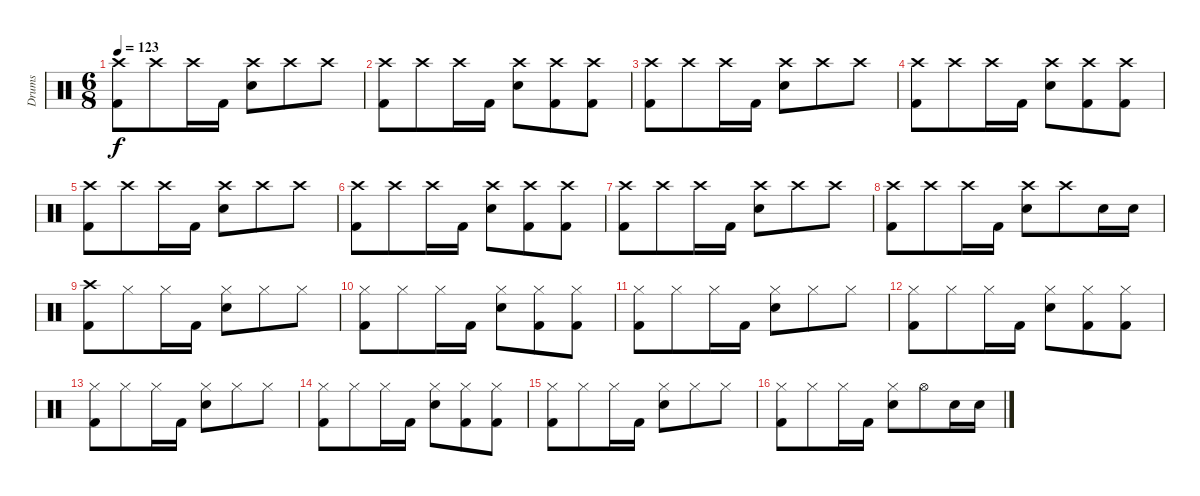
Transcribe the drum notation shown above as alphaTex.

\track ("Drums" "Drums") {instrument percussion}
\staff {score}
\articulation defaults
\ts (6 8)
\tempo 123
\clef neutral
\ks c
("Crash high (hit)" "Kick (hit) 2").8{dy f} "Crash high (hit)".8 "Crash high (hit)".16 "Kick (hit) 2".16 ("Crash high (hit)" "Electric Snare (hit)").8 "Crash high (hit)".8 "Crash high (hit)".8 |
("Crash high (hit)" "Kick (hit) 2").8 "Crash high (hit)".8 "Crash high (hit)".16 "Kick (hit) 2".16 ("Crash high (hit)" "Electric Snare (hit)").8 ("Crash high (hit)" "Kick (hit) 2").8 ("Crash high (hit)" "Kick (hit) 2").8 |
("Crash high (hit)" "Kick (hit) 2").8 "Crash high (hit)".8 "Crash high (hit)".16 "Kick (hit) 2".16 ("Crash high (hit)" "Electric Snare (hit)").8 "Crash high (hit)".8 "Crash high (hit)".8 |
("Crash high (hit)" "Kick (hit) 2").8 "Crash high (hit)".8 "Crash high (hit)".16 "Kick (hit) 2".16 ("Crash high (hit)" "Electric Snare (hit)").8 ("Crash high (hit)" "Kick (hit) 2").8 ("Crash high (hit)" "Kick (hit) 2").8 |
("Crash high (hit)" "Kick (hit) 2").8 "Crash high (hit)".8 "Crash high (hit)".16 "Kick (hit) 2".16 ("Crash high (hit)" "Electric Snare (hit)").8 "Crash high (hit)".8 "Crash high (hit)".8 |
("Crash high (hit)" "Kick (hit) 2").8 "Crash high (hit)".8 "Crash high (hit)".16 "Kick (hit) 2".16 ("Crash high (hit)" "Electric Snare (hit)").8 ("Crash high (hit)" "Kick (hit) 2").8 ("Crash high (hit)" "Kick (hit) 2").8 |
("Crash high (hit)" "Kick (hit) 2").8 "Crash high (hit)".8 "Crash high (hit)".16 "Kick (hit) 2".16 ("Crash high (hit)" "Electric Snare (hit)").8 "Crash high (hit)".8 "Crash high (hit)".8 |
("Crash high (hit)" "Kick (hit) 2").8 "Crash high (hit)".8 "Crash high (hit)".16 "Kick (hit) 2".16 ("Crash high (hit)" "Electric Snare (hit)").8 "Crash high (hit)".8 "Electric Snare (hit)".16 "Electric Snare (hit)".16 |
("Crash high (hit)" "Kick (hit) 2").8 "Hi-Hat (closed)".8 "Hi-Hat (closed)".16 "Kick (hit) 2".16 ("Hi-Hat (closed)" "Electric Snare (hit)").8 "Hi-Hat (closed)".8 "Hi-Hat (closed)".8 |
("Hi-Hat (closed)" "Kick (hit) 2").8 "Hi-Hat (closed)".8 "Hi-Hat (closed)".16 "Kick (hit) 2".16 ("Hi-Hat (closed)" "Electric Snare (hit)").8 ("Hi-Hat (closed)" "Kick (hit) 2").8 ("Hi-Hat (closed)" "Kick (hit) 2").8 |
("Hi-Hat (closed)" "Kick (hit) 2").8 "Hi-Hat (closed)".8 "Hi-Hat (closed)".16 "Kick (hit) 2".16 ("Hi-Hat (closed)" "Electric Snare (hit)").8 "Hi-Hat (closed)".8 "Hi-Hat (closed)".8 |
("Hi-Hat (closed)" "Kick (hit) 2").8 "Hi-Hat (closed)".8 "Hi-Hat (closed)".16 "Kick (hit) 2".16 ("Hi-Hat (closed)" "Electric Snare (hit)").8 ("Hi-Hat (closed)" "Kick (hit) 2").8 ("Hi-Hat (closed)" "Kick (hit) 2").8 |
("Hi-Hat (closed)" "Kick (hit) 2").8 "Hi-Hat (closed)".8 "Hi-Hat (closed)".16 "Kick (hit) 2".16 ("Hi-Hat (closed)" "Electric Snare (hit)").8 "Hi-Hat (closed)".8 "Hi-Hat (closed)".8 |
("Hi-Hat (closed)" "Kick (hit) 2").8 "Hi-Hat (closed)".8 "Hi-Hat (closed)".16 "Kick (hit) 2".16 ("Hi-Hat (closed)" "Electric Snare (hit)").8 ("Hi-Hat (closed)" "Kick (hit) 2").8 ("Hi-Hat (closed)" "Kick (hit) 2").8 |
("Hi-Hat (closed)" "Kick (hit) 2").8 "Hi-Hat (closed)".8 "Hi-Hat (closed)".16 "Kick (hit) 2".16 ("Hi-Hat (closed)" "Electric Snare (hit)").8 "Hi-Hat (closed)".8 "Hi-Hat (closed)".8 |
("Hi-Hat (closed)" "Kick (hit) 2").8 "Hi-Hat (closed)".8 "Hi-Hat (closed)".16 "Kick (hit) 2".16 ("Hi-Hat (closed)" "Electric Snare (hit)").8 "Hi-Hat (open)".8 "Electric Snare (hit)".16 "Electric Snare (hit)".16
